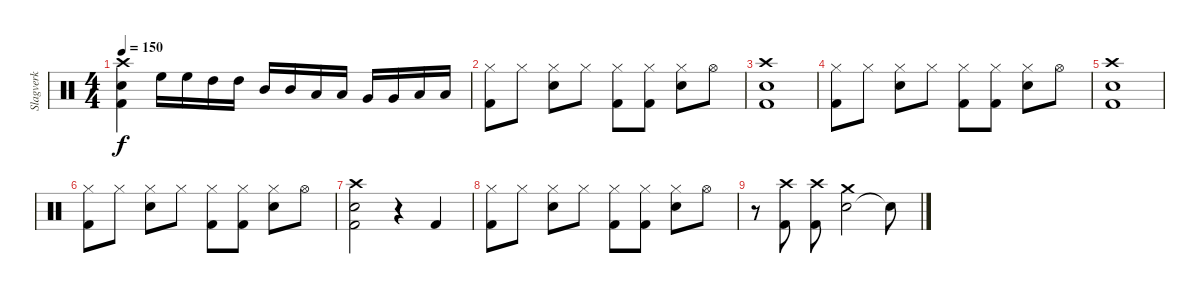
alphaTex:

\track ("Slagverk" "Slagverk") {instrument percussion}
\staff {score}
\articulation defaults
\ts (4 4)
\tempo 150
\clef neutral
\ks c
("Crash high (hit)" "Kick (hit) 2" "Snare (hit) 2").4{dy f} "High Floor Tom (hit)".16 "High Floor Tom (hit)".16 "High Tom (hit)".16 "High Tom (hit)".16 "Mid Tom (hit)".16 "Mid Tom (hit)".16 "Low Tom (hit)".16 "Low Tom (hit)".16 "Very Low Tom (hit)".16 "Very Low Tom (hit)".16 "Low Floor Tom (hit)".16 "Low Floor Tom (hit)".16 |
("Hi-Hat (closed)" "Kick (hit) 2").8 "Hi-Hat (closed)".8 ("Hi-Hat (closed)" "Snare (hit) 2").8 "Hi-Hat (closed)".8 ("Hi-Hat (closed)" "Kick (hit) 2").8 ("Hi-Hat (closed)" "Kick (hit) 2").8 ("Hi-Hat (closed)" "Snare (hit) 2").8 "Hi-Hat (open)".8 |
("Crash high (hit)" "Kick (hit) 2" "Snare (hit) 2").1 |
("Hi-Hat (closed)" "Kick (hit) 2").8 "Hi-Hat (closed)".8 ("Hi-Hat (closed)" "Snare (hit) 2").8 "Hi-Hat (closed)".8 ("Hi-Hat (closed)" "Kick (hit) 2").8 ("Hi-Hat (closed)" "Kick (hit) 2").8 ("Hi-Hat (closed)" "Snare (hit) 2").8 "Hi-Hat (open)".8 |
("Crash high (hit)" "Kick (hit) 2" "Snare (hit) 2").1 |
("Hi-Hat (closed)" "Kick (hit) 2").8 "Hi-Hat (closed)".8 ("Hi-Hat (closed)" "Snare (hit) 2").8 "Hi-Hat (closed)".8 ("Hi-Hat (closed)" "Kick (hit) 2").8 ("Hi-Hat (closed)" "Kick (hit) 2").8 ("Hi-Hat (closed)" "Snare (hit) 2").8 "Hi-Hat (open)".8 |
("Crash high (hit)" "Kick (hit) 2" "Snare (hit) 2").2 r.4 "Kick (hit) 2".4 |
("Hi-Hat (closed)" "Kick (hit) 2").8 "Hi-Hat (closed)".8 ("Hi-Hat (closed)" "Snare (hit) 2").8 "Hi-Hat (closed)".8 ("Hi-Hat (closed)" "Kick (hit) 2").8 ("Hi-Hat (closed)" "Kick (hit) 2").8 ("Hi-Hat (closed)" "Snare (hit) 2").8 "Hi-Hat (open)".8 |
r.8 ("Kick (hit) 2" "Crash high (hit)").8 ("Kick (hit) 2" "Crash high (hit)").8 ("Snare (hit) 2" "Crash medium (hit)").2 "Snare (hit)"{t}.8
